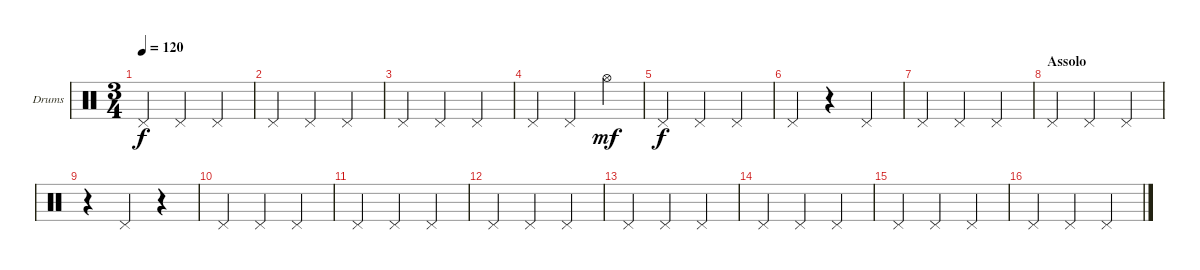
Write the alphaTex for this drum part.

\bracketExtendMode groupsimilarinstruments
\firstSystemTrackNameOrientation horizontal
\otherSystemsTrackNameOrientation horizontal
\track ("Drumkit" "Drums") {instrument percussion}
\staff {score}
\articulation defaults
\ts (3 4)
\tempo 120
\clef neutral
\ks c "Pedal Hi-Hat (hit)".4{dy f} "Pedal Hi-Hat (hit)".4 "Pedal Hi-Hat (hit)".4
|
"Pedal Hi-Hat (hit)".4 "Pedal Hi-Hat (hit)".4 "Pedal Hi-Hat (hit)".4 |
"Pedal Hi-Hat (hit)".4 "Pedal Hi-Hat (hit)".4 "Pedal Hi-Hat (hit)".4 |
"Pedal Hi-Hat (hit)".4 "Pedal Hi-Hat (hit)".4 "Hi-Hat (open)".4{dy mf} |
"Pedal Hi-Hat (hit)".4{dy f} "Pedal Hi-Hat (hit)".4 "Pedal Hi-Hat (hit)".4 |
"Pedal Hi-Hat (hit)".4 r.4 "Pedal Hi-Hat (hit)".4 |
"Pedal Hi-Hat (hit)".4 "Pedal Hi-Hat (hit)".4 "Pedal Hi-Hat (hit)".4 |
\section ("" "Assolo")
"Pedal Hi-Hat (hit)".4 "Pedal Hi-Hat (hit)".4 "Pedal Hi-Hat (hit)".4 |
r.4 "Pedal Hi-Hat (hit)".4 r.4 |
"Pedal Hi-Hat (hit)".4 "Pedal Hi-Hat (hit)".4 "Pedal Hi-Hat (hit)".4 |
"Pedal Hi-Hat (hit)".4 "Pedal Hi-Hat (hit)".4 "Pedal Hi-Hat (hit)".4 |
"Pedal Hi-Hat (hit)".4 "Pedal Hi-Hat (hit)".4 "Pedal Hi-Hat (hit)".4 |
"Pedal Hi-Hat (hit)".4 "Pedal Hi-Hat (hit)".4 "Pedal Hi-Hat (hit)".4 |
"Pedal Hi-Hat (hit)".4 "Pedal Hi-Hat (hit)".4 "Pedal Hi-Hat (hit)".4 |
"Pedal Hi-Hat (hit)".4 "Pedal Hi-Hat (hit)".4 "Pedal Hi-Hat (hit)".4 |
"Pedal Hi-Hat (hit)".4 "Pedal Hi-Hat (hit)".4 "Pedal Hi-Hat (hit)".4
